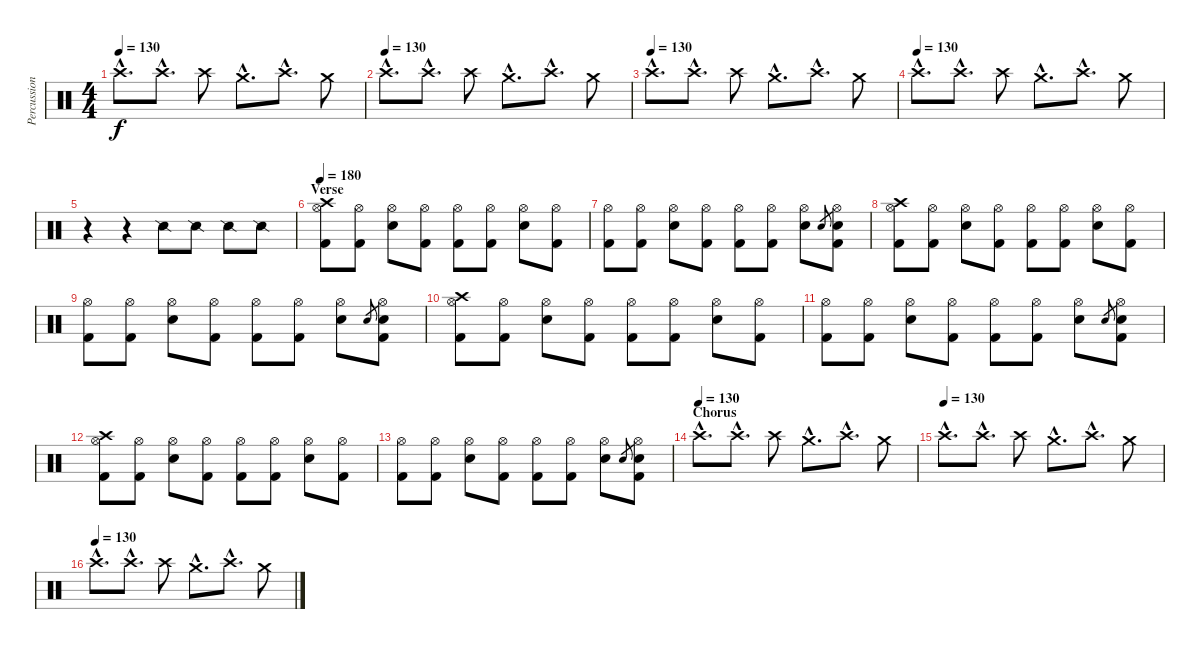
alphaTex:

\track ("Percussion" "Percussion") {instrument percussion}
\staff {score}
\articulation defaults
\ts (4 4)
\tempo 130
\clef neutral
\ks c "Crash high (hit)"{hac}.8{d dy f volume 13} "Crash high (hit)"{hac}.8{d} "Crash high (hit)".8 "Crash medium (hit)"{hac}.8{d volume 8} "Crash high (hit)"{hac}.8{d} "Crash medium (hit)".8
|
\tempo (130)
"Crash high (hit)"{hac}.8{d volume 13} "Crash high (hit)"{hac}.8{d} "Crash high (hit)".8 "Crash medium (hit)"{hac}.8{d volume 8} "Crash high (hit)"{hac}.8{d} "Crash medium (hit)".8 |
\tempo (130)
"Crash high (hit)"{hac}.8{d volume 13} "Crash high (hit)"{hac}.8{d} "Crash high (hit)".8 "Crash medium (hit)"{hac}.8{d volume 8} "Crash high (hit)"{hac}.8{d} "Crash medium (hit)".8 |
\tempo (130)
"Crash high (hit)"{hac}.8{d volume 13} "Crash high (hit)"{hac}.8{d} "Crash high (hit)".8 "Crash medium (hit)"{hac}.8{d volume 8} "Crash high (hit)"{hac}.8{d} "Crash medium (hit)".8 |
r.4 r.4 "Snare (side stick) 2".8 "Snare (side stick) 2".8 "Snare (side stick) 2".8 "Snare (side stick) 2".8 |
\section ("" "Verse")
\tempo 180
("Crash high (hit)" "Hi-Hat (open)" "Kick (hit) 2").8{volume 13} ("Hi-Hat (open)" "Kick (hit) 2").8 ("Hi-Hat (open)" "Electric Snare (hit)").8 ("Hi-Hat (open)" "Kick (hit) 2").8 ("Hi-Hat (open)" "Kick (hit) 2").8 ("Hi-Hat (open)" "Kick (hit) 2").8 ("Hi-Hat (open)" "Electric Snare (hit)").8 ("Hi-Hat (open)" "Kick (hit) 2").8 |
("Hi-Hat (open)" "Kick (hit) 2").8 ("Hi-Hat (open)" "Kick (hit) 2").8 ("Hi-Hat (open)" "Electric Snare (hit)").8 ("Hi-Hat (open)" "Kick (hit) 2").8 ("Hi-Hat (open)" "Kick (hit) 2").8 ("Hi-Hat (open)" "Kick (hit) 2").8 ("Hi-Hat (open)" "Electric Snare (hit)").8 "Electric Snare (hit)".8{gr} ("Hi-Hat (open)" "Electric Snare (hit)" "Kick (hit) 2").8 |
("Crash high (hit)" "Hi-Hat (open)" "Kick (hit) 2").8 ("Hi-Hat (open)" "Kick (hit) 2").8 ("Hi-Hat (open)" "Electric Snare (hit)").8 ("Hi-Hat (open)" "Kick (hit) 2").8 ("Hi-Hat (open)" "Kick (hit) 2").8 ("Hi-Hat (open)" "Kick (hit) 2").8 ("Hi-Hat (open)" "Electric Snare (hit)").8 ("Hi-Hat (open)" "Kick (hit) 2").8 |
("Hi-Hat (open)" "Kick (hit) 2").8 ("Hi-Hat (open)" "Kick (hit) 2").8 ("Hi-Hat (open)" "Electric Snare (hit)").8 ("Hi-Hat (open)" "Kick (hit) 2").8 ("Hi-Hat (open)" "Kick (hit) 2").8 ("Hi-Hat (open)" "Kick (hit) 2").8 ("Hi-Hat (open)" "Electric Snare (hit)").8 "Electric Snare (hit)".8{gr} ("Hi-Hat (open)" "Electric Snare (hit)" "Kick (hit) 2").8 |
("Crash high (hit)" "Hi-Hat (open)" "Kick (hit) 2").8 ("Hi-Hat (open)" "Kick (hit) 2").8 ("Hi-Hat (open)" "Electric Snare (hit)").8 ("Hi-Hat (open)" "Kick (hit) 2").8 ("Hi-Hat (open)" "Kick (hit) 2").8 ("Hi-Hat (open)" "Kick (hit) 2").8 ("Hi-Hat (open)" "Electric Snare (hit)").8 ("Hi-Hat (open)" "Kick (hit) 2").8 |
("Hi-Hat (open)" "Kick (hit) 2").8 ("Hi-Hat (open)" "Kick (hit) 2").8 ("Hi-Hat (open)" "Electric Snare (hit)").8 ("Hi-Hat (open)" "Kick (hit) 2").8 ("Hi-Hat (open)" "Kick (hit) 2").8 ("Hi-Hat (open)" "Kick (hit) 2").8 ("Hi-Hat (open)" "Electric Snare (hit)").8 "Electric Snare (hit)".8{gr} ("Hi-Hat (open)" "Electric Snare (hit)" "Kick (hit) 2").8 |
("Crash high (hit)" "Hi-Hat (open)" "Kick (hit) 2").8 ("Hi-Hat (open)" "Kick (hit) 2").8 ("Hi-Hat (open)" "Electric Snare (hit)").8 ("Hi-Hat (open)" "Kick (hit) 2").8 ("Hi-Hat (open)" "Kick (hit) 2").8 ("Hi-Hat (open)" "Kick (hit) 2").8 ("Hi-Hat (open)" "Electric Snare (hit)").8 ("Hi-Hat (open)" "Kick (hit) 2").8 |
("Hi-Hat (open)" "Kick (hit) 2").8 ("Hi-Hat (open)" "Kick (hit) 2").8 ("Hi-Hat (open)" "Electric Snare (hit)").8 ("Hi-Hat (open)" "Kick (hit) 2").8 ("Hi-Hat (open)" "Kick (hit) 2").8 ("Hi-Hat (open)" "Kick (hit) 2").8 ("Hi-Hat (open)" "Electric Snare (hit)").8 "Electric Snare (hit)".8{gr} ("Hi-Hat (open)" "Electric Snare (hit)" "Kick (hit) 2").8 |
\section ("" "Chorus")
\tempo (130)
"Crash high (hit)"{hac}.8{d volume 13} "Crash high (hit)"{hac}.8{d} "Crash high (hit)".8 "Crash medium (hit)"{hac}.8{d volume 8} "Crash high (hit)"{hac}.8{d} "Crash medium (hit)".8 |
\tempo (130)
"Crash high (hit)"{hac}.8{d volume 13} "Crash high (hit)"{hac}.8{d} "Crash high (hit)".8 "Crash medium (hit)"{hac}.8{d volume 8} "Crash high (hit)"{hac}.8{d} "Crash medium (hit)".8 |
\tempo (130)
"Crash high (hit)"{hac}.8{d volume 13} "Crash high (hit)"{hac}.8{d} "Crash high (hit)".8 "Crash medium (hit)"{hac}.8{d volume 8} "Crash high (hit)"{hac}.8{d} "Crash medium (hit)".8
